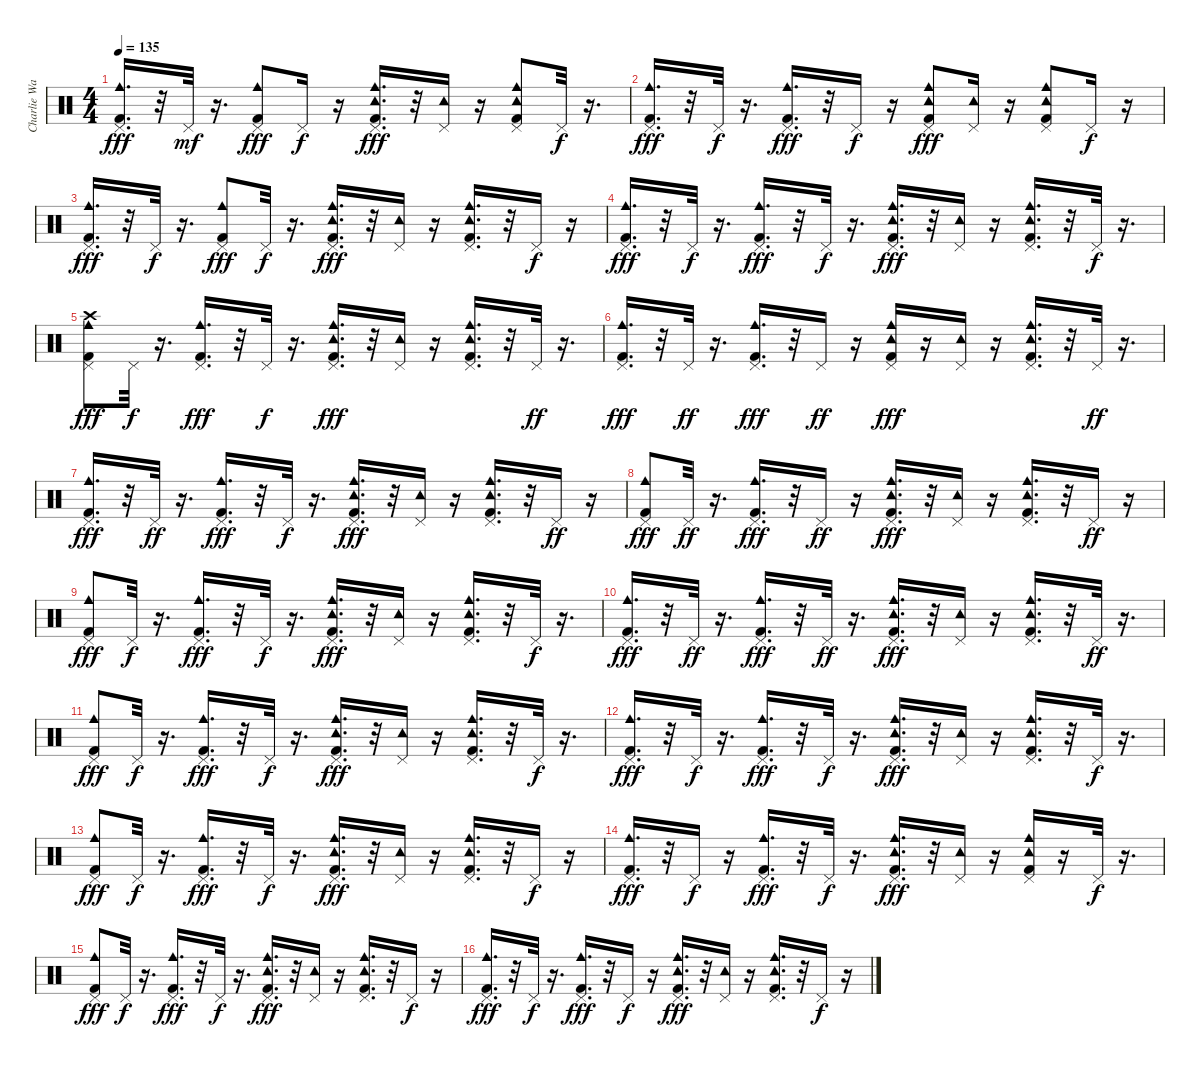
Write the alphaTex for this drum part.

\track ("Charlie Watts - Drums" "Charlie Wa") {instrument percussion}
\staff {score}
\articulation defaults
\ts (4 4)
\tempo 135
\clef neutral
\ks c
("Kick (hit) 2" "Pedal Hi-Hat (hit)" "Cowbell medium (hit)").16{d dy fff} r.32 "Pedal Hi-Hat (hit)".32{dy mf} r.16{d} ("Kick (hit) 2" "Pedal Hi-Hat (hit)" "Cowbell medium (hit)").8{dy fff} "Pedal Hi-Hat (hit)".16{dy f} r.16 ("Kick (hit) 2" "Pedal Hi-Hat (hit)" "Tambourine (hit)" "Cowbell medium (hit)").16{d dy fff} r.32 ("Pedal Hi-Hat (hit)" "Tambourine (hit)").16 r.16 ("Kick (hit) 2" "Pedal Hi-Hat (hit)" "Tambourine (hit)" "Cowbell medium (hit)").8 "Pedal Hi-Hat (hit)".32{dy f} r.16{d} |
("Kick (hit) 2" "Pedal Hi-Hat (hit)" "Cowbell medium (hit)").16{d dy fff} r.32 "Pedal Hi-Hat (hit)".32{dy f} r.16{d} ("Kick (hit) 2" "Pedal Hi-Hat (hit)" "Cowbell medium (hit)").16{d dy fff} r.32 "Pedal Hi-Hat (hit)".16{dy f} r.16 ("Kick (hit) 2" "Pedal Hi-Hat (hit)" "Tambourine (hit)" "Cowbell medium (hit)").8{dy fff} ("Pedal Hi-Hat (hit)" "Tambourine (hit)").16 r.16 ("Kick (hit) 2" "Pedal Hi-Hat (hit)" "Tambourine (hit)" "Cowbell medium (hit)").8 "Pedal Hi-Hat (hit)".16{dy f} r.16 |
("Kick (hit) 2" "Pedal Hi-Hat (hit)" "Cowbell medium (hit)").16{d dy fff} r.32 "Pedal Hi-Hat (hit)".32{dy f} r.16{d} ("Kick (hit) 2" "Pedal Hi-Hat (hit)" "Cowbell medium (hit)").8{dy fff} "Pedal Hi-Hat (hit)".32{dy f} r.16{d} ("Kick (hit) 2" "Pedal Hi-Hat (hit)" "Tambourine (hit)" "Cowbell medium (hit)").16{d dy fff} r.32 ("Pedal Hi-Hat (hit)" "Tambourine (hit)").16 r.16 ("Kick (hit) 2" "Pedal Hi-Hat (hit)" "Tambourine (hit)" "Cowbell medium (hit)").16{d} r.32 "Pedal Hi-Hat (hit)".16{dy f} r.16 |
("Kick (hit) 2" "Pedal Hi-Hat (hit)" "Cowbell medium (hit)").16{d dy fff} r.32 "Pedal Hi-Hat (hit)".32{dy f} r.16{d} ("Kick (hit) 2" "Pedal Hi-Hat (hit)" "Cowbell medium (hit)").16{d dy fff} r.32 "Pedal Hi-Hat (hit)".32{dy f} r.16{d} ("Kick (hit) 2" "Pedal Hi-Hat (hit)" "Tambourine (hit)" "Cowbell medium (hit)").16{d dy fff} r.32 ("Pedal Hi-Hat (hit)" "Tambourine (hit)").16 r.16 ("Kick (hit) 2" "Pedal Hi-Hat (hit)" "Tambourine (hit)" "Cowbell medium (hit)").16{d} r.32 "Pedal Hi-Hat (hit)".32{dy f} r.16{d} |
("Kick (hit) 2" "Pedal Hi-Hat (hit)" "Crash high (hit)" "Cowbell medium (hit)").8{dy fff} "Pedal Hi-Hat (hit)".32{dy f} r.16{d} ("Kick (hit) 2" "Pedal Hi-Hat (hit)" "Cowbell medium (hit)").16{d dy fff} r.32 "Pedal Hi-Hat (hit)".32{dy f} r.16{d} ("Kick (hit) 2" "Pedal Hi-Hat (hit)" "Tambourine (hit)" "Cowbell medium (hit)").16{d dy fff} r.32 ("Pedal Hi-Hat (hit)" "Tambourine (hit)").16 r.16 ("Kick (hit) 2" "Pedal Hi-Hat (hit)" "Tambourine (hit)" "Cowbell medium (hit)").16{d} r.32 "Pedal Hi-Hat (hit)".32{dy ff} r.16{d} |
("Kick (hit) 2" "Pedal Hi-Hat (hit)" "Cowbell medium (hit)").16{d dy fff} r.32 "Pedal Hi-Hat (hit)".32{dy ff} r.16{d} ("Kick (hit) 2" "Pedal Hi-Hat (hit)" "Cowbell medium (hit)").16{d dy fff} r.32 "Pedal Hi-Hat (hit)".16{dy ff} r.16 ("Kick (hit) 2" "Pedal Hi-Hat (hit)" "Tambourine (hit)" "Cowbell medium (hit)").16{dy fff} r.16 ("Pedal Hi-Hat (hit)" "Tambourine (hit)").16 r.16 ("Kick (hit) 2" "Pedal Hi-Hat (hit)" "Tambourine (hit)" "Cowbell medium (hit)").16{d} r.32 "Pedal Hi-Hat (hit)".32{dy ff} r.16{d} |
("Kick (hit) 2" "Pedal Hi-Hat (hit)" "Cowbell medium (hit)").16{d dy fff} r.32 "Pedal Hi-Hat (hit)".32{dy ff} r.16{d} ("Kick (hit) 2" "Pedal Hi-Hat (hit)" "Cowbell medium (hit)").16{d dy fff} r.32 "Pedal Hi-Hat (hit)".32{dy f} r.16{d} ("Kick (hit) 2" "Pedal Hi-Hat (hit)" "Tambourine (hit)" "Cowbell medium (hit)").16{d dy fff} r.32 ("Pedal Hi-Hat (hit)" "Tambourine (hit)").16 r.16 ("Kick (hit) 2" "Pedal Hi-Hat (hit)" "Tambourine (hit)" "Cowbell medium (hit)").16{d} r.32 "Pedal Hi-Hat (hit)".16{dy ff} r.16 |
("Kick (hit) 2" "Pedal Hi-Hat (hit)" "Cowbell medium (hit)").8{dy fff} "Pedal Hi-Hat (hit)".32{dy ff} r.16{d} ("Kick (hit) 2" "Pedal Hi-Hat (hit)" "Cowbell medium (hit)").16{d dy fff} r.32 "Pedal Hi-Hat (hit)".16{dy ff} r.16 ("Kick (hit) 2" "Pedal Hi-Hat (hit)" "Tambourine (hit)" "Cowbell medium (hit)").16{d dy fff} r.32 ("Pedal Hi-Hat (hit)" "Tambourine (hit)").16 r.16 ("Kick (hit) 2" "Pedal Hi-Hat (hit)" "Tambourine (hit)" "Cowbell medium (hit)").16{d} r.32 "Pedal Hi-Hat (hit)".16{dy ff} r.16 |
("Kick (hit) 2" "Pedal Hi-Hat (hit)" "Cowbell medium (hit)").8{dy fff} "Pedal Hi-Hat (hit)".32{dy f} r.16{d} ("Kick (hit) 2" "Pedal Hi-Hat (hit)" "Cowbell medium (hit)").16{d dy fff} r.32 "Pedal Hi-Hat (hit)".32{dy f} r.16{d} ("Kick (hit) 2" "Pedal Hi-Hat (hit)" "Tambourine (hit)" "Cowbell medium (hit)").16{d dy fff} r.32 ("Pedal Hi-Hat (hit)" "Tambourine (hit)").16 r.16 ("Kick (hit) 2" "Pedal Hi-Hat (hit)" "Tambourine (hit)" "Cowbell medium (hit)").16{d} r.32 "Pedal Hi-Hat (hit)".32{dy f} r.16{d} |
("Kick (hit) 2" "Pedal Hi-Hat (hit)" "Cowbell medium (hit)").16{d dy fff} r.32 "Pedal Hi-Hat (hit)".32{dy ff} r.16{d} ("Kick (hit) 2" "Pedal Hi-Hat (hit)" "Cowbell medium (hit)").16{d dy fff} r.32 "Pedal Hi-Hat (hit)".32{dy ff} r.16{d} ("Kick (hit) 2" "Pedal Hi-Hat (hit)" "Tambourine (hit)" "Cowbell medium (hit)").16{d dy fff} r.32 ("Pedal Hi-Hat (hit)" "Tambourine (hit)").16 r.16 ("Kick (hit) 2" "Pedal Hi-Hat (hit)" "Tambourine (hit)" "Cowbell medium (hit)").16{d} r.32 "Pedal Hi-Hat (hit)".32{dy ff} r.16{d} |
("Kick (hit) 2" "Pedal Hi-Hat (hit)" "Cowbell medium (hit)").8{dy fff} "Pedal Hi-Hat (hit)".32{dy f} r.16{d} ("Kick (hit) 2" "Pedal Hi-Hat (hit)" "Cowbell medium (hit)").16{d dy fff} r.32 "Pedal Hi-Hat (hit)".32{dy f} r.16{d} ("Kick (hit) 2" "Pedal Hi-Hat (hit)" "Tambourine (hit)" "Cowbell medium (hit)").16{d dy fff} r.32 ("Pedal Hi-Hat (hit)" "Tambourine (hit)").16 r.16 ("Kick (hit) 2" "Pedal Hi-Hat (hit)" "Tambourine (hit)" "Cowbell medium (hit)").16{d} r.32 "Pedal Hi-Hat (hit)".32{dy f} r.16{d} |
("Kick (hit) 2" "Pedal Hi-Hat (hit)" "Cowbell medium (hit)").16{d dy fff} r.32 "Pedal Hi-Hat (hit)".32{dy f} r.16{d} ("Kick (hit) 2" "Pedal Hi-Hat (hit)" "Cowbell medium (hit)").16{d dy fff} r.32 "Pedal Hi-Hat (hit)".32{dy f} r.16{d} ("Kick (hit) 2" "Pedal Hi-Hat (hit)" "Tambourine (hit)" "Cowbell medium (hit)").16{d dy fff} r.32 ("Pedal Hi-Hat (hit)" "Tambourine (hit)").16 r.16 ("Kick (hit) 2" "Pedal Hi-Hat (hit)" "Tambourine (hit)" "Cowbell medium (hit)").16{d} r.32 "Pedal Hi-Hat (hit)".32{dy f} r.16{d} |
("Kick (hit) 2" "Pedal Hi-Hat (hit)" "Cowbell medium (hit)").8{dy fff} "Pedal Hi-Hat (hit)".32{dy f} r.16{d} ("Kick (hit) 2" "Pedal Hi-Hat (hit)" "Cowbell medium (hit)").16{d dy fff} r.32 "Pedal Hi-Hat (hit)".32{dy f} r.16{d} ("Kick (hit) 2" "Pedal Hi-Hat (hit)" "Tambourine (hit)" "Cowbell medium (hit)").16{d dy fff} r.32 ("Pedal Hi-Hat (hit)" "Tambourine (hit)").16 r.16 ("Kick (hit) 2" "Pedal Hi-Hat (hit)" "Tambourine (hit)" "Cowbell medium (hit)").16{d} r.32 "Pedal Hi-Hat (hit)".16{dy f} r.16 |
("Kick (hit) 2" "Pedal Hi-Hat (hit)" "Cowbell medium (hit)").16{d dy fff} r.32 "Pedal Hi-Hat (hit)".16{dy f} r.16 ("Kick (hit) 2" "Pedal Hi-Hat (hit)" "Cowbell medium (hit)").16{d dy fff} r.32 "Pedal Hi-Hat (hit)".32{dy f} r.16{d} ("Kick (hit) 2" "Pedal Hi-Hat (hit)" "Tambourine (hit)" "Cowbell medium (hit)").16{d dy fff} r.32 ("Pedal Hi-Hat (hit)" "Tambourine (hit)").16 r.16 ("Kick (hit) 2" "Pedal Hi-Hat (hit)" "Tambourine (hit)" "Cowbell medium (hit)").16 r.16 "Pedal Hi-Hat (hit)".32{dy f} r.16{d} |
("Kick (hit) 2" "Pedal Hi-Hat (hit)" "Cowbell medium (hit)").8{dy fff} "Pedal Hi-Hat (hit)".32{dy f} r.16{d} ("Kick (hit) 2" "Pedal Hi-Hat (hit)" "Cowbell medium (hit)").16{d dy fff} r.32 "Pedal Hi-Hat (hit)".32{dy f} r.16{d} ("Kick (hit) 2" "Pedal Hi-Hat (hit)" "Tambourine (hit)" "Cowbell medium (hit)").16{d dy fff} r.32 ("Pedal Hi-Hat (hit)" "Tambourine (hit)").16 r.16 ("Kick (hit) 2" "Pedal Hi-Hat (hit)" "Tambourine (hit)" "Cowbell medium (hit)").16{d} r.32 "Pedal Hi-Hat (hit)".16{dy f} r.16 |
("Kick (hit) 2" "Pedal Hi-Hat (hit)" "Cowbell medium (hit)").16{d dy fff} r.32 "Pedal Hi-Hat (hit)".32{dy f} r.16{d} ("Kick (hit) 2" "Pedal Hi-Hat (hit)" "Cowbell medium (hit)").16{d dy fff} r.32 "Pedal Hi-Hat (hit)".16{dy f} r.16 ("Kick (hit) 2" "Pedal Hi-Hat (hit)" "Tambourine (hit)" "Cowbell medium (hit)").16{d dy fff} r.32 ("Pedal Hi-Hat (hit)" "Tambourine (hit)").16 r.16 ("Kick (hit) 2" "Pedal Hi-Hat (hit)" "Tambourine (hit)" "Cowbell medium (hit)").16{d} r.32 "Pedal Hi-Hat (hit)".16{dy f} r.16
